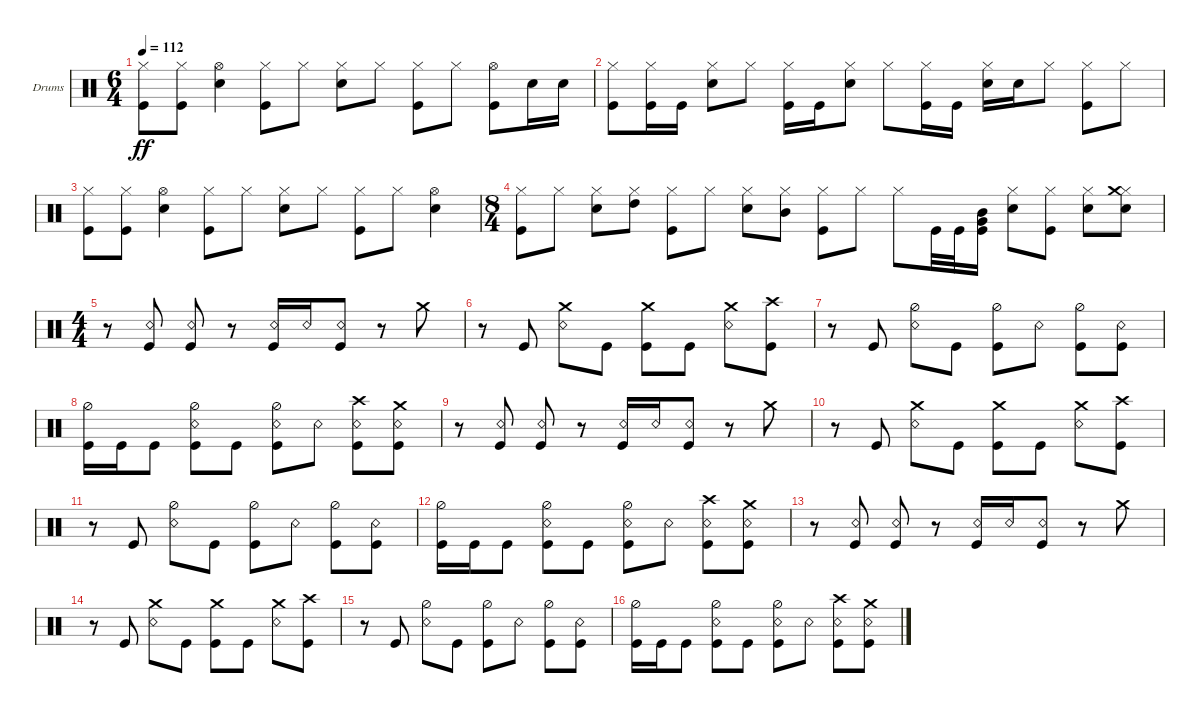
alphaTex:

\defaultSystemsLayout 4
\bracketExtendMode groupsimilarinstruments
\firstSystemTrackNameOrientation horizontal
\otherSystemsTrackNameOrientation horizontal
\track ("Kaleb - Drums" "Drums") {instrument percussion}
\staff {score}
\articulation defaults
\ts (6 4)
\tempo 112
\clef neutral
\ks c
("Hi-Hat (closed)" "Kick (hit)").8{dy ff} ("Hi-Hat (closed)" "Kick (hit)").8 ("Hi-Hat (open)" "Snare (hit) 2").4 ("Hi-Hat (closed)" "Kick (hit)").8 "Hi-Hat (closed)".8 ("Hi-Hat (closed)" "Snare (hit) 2").8 "Hi-Hat (closed)".8 ("Hi-Hat (closed)" "Kick (hit)").8 "Hi-Hat (closed)".8 ("Kick (hit)" "Hi-Hat (open)").8 "Snare (hit) 2".16 "Snare (hit) 2".16 |
("Kick (hit)" "Hi-Hat (closed)").8 ("Kick (hit)" "Hi-Hat (closed)").16 "Kick (hit)".16 ("Snare (hit) 2" "Hi-Hat (closed)").8 "Hi-Hat (closed)".8 ("Hi-Hat (closed)" "Kick (hit)").16 "Kick (hit)".16 ("Hi-Hat (closed)" "Snare (hit) 2").8 "Hi-Hat (closed)".8 ("Hi-Hat (closed)" "Kick (hit)").16 "Kick (hit)".16 ("Hi-Hat (closed)" "Snare (hit) 2").16 "Snare (hit) 2".16 "Hi-Hat (closed)".8 ("Hi-Hat (closed)" "Kick (hit)").8 "Hi-Hat (closed)".8 |
("Hi-Hat (closed)" "Kick (hit)").8 ("Hi-Hat (closed)" "Kick (hit)").8 ("Hi-Hat (open)" "Snare (hit) 2").4 ("Hi-Hat (closed)" "Kick (hit)").8 "Hi-Hat (closed)".8 ("Hi-Hat (closed)" "Snare (hit) 2").8 "Hi-Hat (closed)".8 ("Hi-Hat (closed)" "Kick (hit)").8 "Hi-Hat (closed)".8 ("Hi-Hat (open)" "Snare (hit) 2").4 |
\ts (8 4)
("Kick (hit)" "Hi-Hat (closed)").8 "Hi-Hat (closed)".8 ("Hi-Hat (closed)" "Snare (hit) 2").8 ("Hi-Hat (closed)" "High Tom (hit)").8 ("Hi-Hat (closed)" "Kick (hit)").8 "Hi-Hat (closed)".8 ("Hi-Hat (closed)" "Snare (hit) 2").8 ("Hi-Hat (closed)" "Mid Tom (hit)").8 ("Hi-Hat (closed)" "Kick (hit)").8 "Hi-Hat (closed)".8 "Hi-Hat (closed)".8 "Kick (hit)".32 "Kick (hit)".32 ("Mid Tom (hit)" "Very Low Tom (hit)" "Kick (hit)").16 ("Snare (hit) 2" "Hi-Hat (closed)").8 ("Kick (hit)" "Hi-Hat (closed)").8 ("Snare (hit) 2" "Hi-Hat (closed)").8 ("Snare (hit) 2" "Hi-Hat (closed)" "Crash medium (hit)").8 |
\ts (4 4)
r.8 ("Snare (rim shot)" "Kick (hit)").8 ("Snare (rim shot)" "Kick (hit)").8 r.8 ("Snare (rim shot)" "Kick (hit)").16 "Snare (rim shot)".16 ("Snare (rim shot)" "Kick (hit)").8 r.8 "Crash medium (hit)".8 |
r.8 "Kick (hit)".8 ("Snare (rim shot)" "Crash medium (hit)").8 "Kick (hit)".8 ("Kick (hit)" "Crash medium (hit)").8 "Kick (hit)".8 ("Snare (rim shot)" "Crash medium (hit)").8 ("Kick (hit)" "Crash high (hit)").8 |
r.8 "Kick (hit)".8 ("Snare (rim shot)" "Hi-Hat (half)").8 "Kick (hit)".8 ("Kick (hit)" "Hi-Hat (half)").8 "Snare (rim shot)".8 ("Kick (hit)" "Hi-Hat (half)").8 ("Snare (rim shot)" "Kick (hit)").8 |
("Kick (hit)" "Hi-Hat (half)").16 "Kick (hit)".16 "Kick (hit)".8 ("Kick (hit)" "Hi-Hat (half)" "Snare (rim shot)").8 "Kick (hit)".8 ("Kick (hit)" "Hi-Hat (half)" "Snare (rim shot)").8 "Snare (rim shot)".8 ("Kick (hit)" "Snare (rim shot)" "Crash high (hit)").8 ("Kick (hit)" "Snare (rim shot)" "Crash medium (hit)").8 |
r.8 ("Snare (rim shot)" "Kick (hit)").8 ("Snare (rim shot)" "Kick (hit)").8 r.8 ("Snare (rim shot)" "Kick (hit)").16 "Snare (rim shot)".16 ("Snare (rim shot)" "Kick (hit)").8 r.8 "Crash medium (hit)".8 |
r.8 "Kick (hit)".8 ("Snare (rim shot)" "Crash medium (hit)").8 "Kick (hit)".8 ("Kick (hit)" "Crash medium (hit)").8 "Kick (hit)".8 ("Snare (rim shot)" "Crash medium (hit)").8 ("Kick (hit)" "Crash high (hit)").8 |
r.8 "Kick (hit)".8 ("Snare (rim shot)" "Hi-Hat (half)").8 "Kick (hit)".8 ("Kick (hit)" "Hi-Hat (half)").8 "Snare (rim shot)".8 ("Kick (hit)" "Hi-Hat (half)").8 ("Snare (rim shot)" "Kick (hit)").8 |
("Kick (hit)" "Hi-Hat (half)").16 "Kick (hit)".16 "Kick (hit)".8 ("Kick (hit)" "Hi-Hat (half)" "Snare (rim shot)").8 "Kick (hit)".8 ("Kick (hit)" "Hi-Hat (half)" "Snare (rim shot)").8 "Snare (rim shot)".8 ("Kick (hit)" "Snare (rim shot)" "Crash high (hit)").8 ("Kick (hit)" "Snare (rim shot)" "Crash medium (hit)").8 |
r.8 ("Snare (rim shot)" "Kick (hit)").8 ("Snare (rim shot)" "Kick (hit)").8 r.8 ("Snare (rim shot)" "Kick (hit)").16 "Snare (rim shot)".16 ("Snare (rim shot)" "Kick (hit)").8 r.8 "Crash medium (hit)".8 |
r.8 "Kick (hit)".8 ("Snare (rim shot)" "Crash medium (hit)").8 "Kick (hit)".8 ("Kick (hit)" "Crash medium (hit)").8 "Kick (hit)".8 ("Snare (rim shot)" "Crash medium (hit)").8 ("Kick (hit)" "Crash high (hit)").8 |
r.8 "Kick (hit)".8 ("Snare (rim shot)" "Hi-Hat (half)").8 "Kick (hit)".8 ("Kick (hit)" "Hi-Hat (half)").8 "Snare (rim shot)".8 ("Kick (hit)" "Hi-Hat (half)").8 ("Snare (rim shot)" "Kick (hit)").8 |
("Kick (hit)" "Hi-Hat (half)").16 "Kick (hit)".16 "Kick (hit)".8 ("Kick (hit)" "Hi-Hat (half)" "Snare (rim shot)").8 "Kick (hit)".8 ("Kick (hit)" "Hi-Hat (half)" "Snare (rim shot)").8 "Snare (rim shot)".8 ("Kick (hit)" "Snare (rim shot)" "Crash high (hit)").8 ("Kick (hit)" "Snare (rim shot)" "Crash medium (hit)").8
